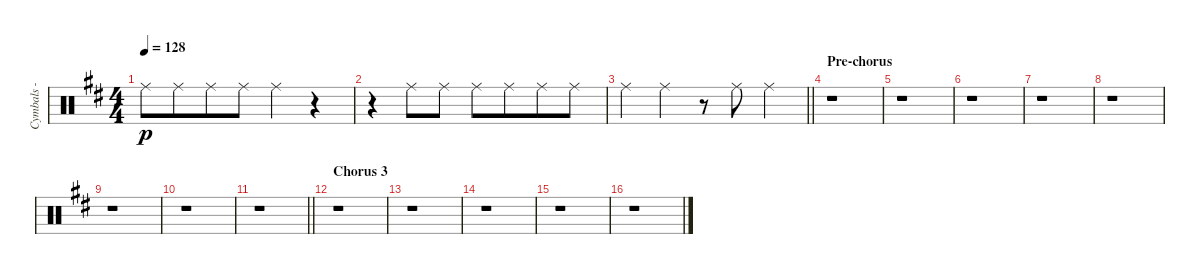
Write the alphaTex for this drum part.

\track ("Cymbals - ride" "Cymbals - ") {instrument percussion}
\staff {score}
\articulation defaults
\ts (4 4)
\tempo 128
\clef neutral
\ks bminor "Ride (middle)".8{dy p} "Ride (middle)".8{beam merge} "Ride (middle)".8 "Ride (middle)".8 "Ride (middle)".4
r.4 |
r.4 "Ride (middle)".8 "Ride (middle)".8 "Ride (middle)".8 "Ride (middle)".8{beam merge} "Ride (middle)".8 "Ride (middle)".8 |
\barLineRight lightlight "Ride (middle)".4{beam merge} "Ride (middle)".4
r.8 "Ride (middle)".8 "Ride (middle)".4 |
\section ("" "Pre-chorus")
r.1 |
r.1 |
r.1 |
r.1 |
r.1 |
r.1 |
r.1 |
\barLineRight lightlight
r.1 |
\section ("" "Chorus 3")
r.1 |
r.1 |
r.1 |
r.1 |
r.1
